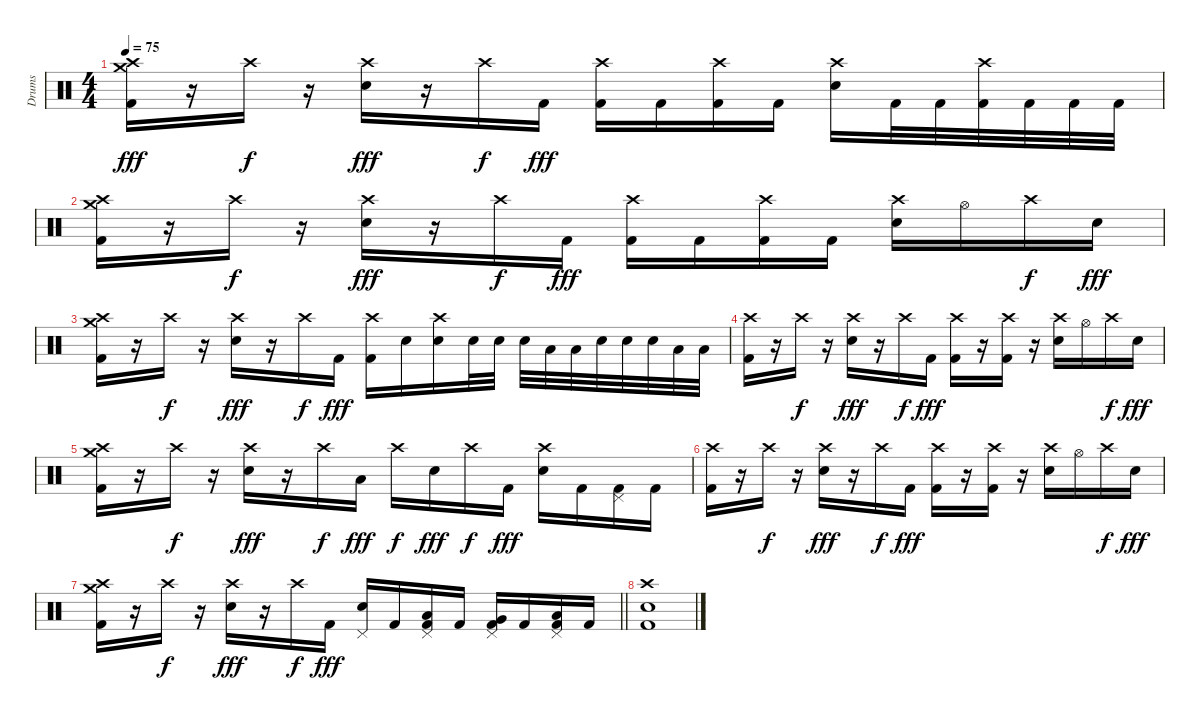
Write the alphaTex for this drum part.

\track ("Drums" "Drums") {instrument percussion}
\staff {score}
\articulation defaults
\ts (4 4)
\tempo 75
\clef neutral
\ks c
("Crash high (hit)" "Crash medium (hit)" "Kick (hit) 2").16{dy fff} r.16 "Crash high (hit)".16{dy f} r.16 ("Crash high (hit)" "Electric Snare (hit)").16{dy fff} r.16 "Crash high (hit)".16{dy f} "Kick (hit) 2".16{dy fff} ("Crash high (hit)" "Kick (hit) 2").16 "Kick (hit) 2".16 ("Crash high (hit)" "Kick (hit) 2").16 "Kick (hit) 2".16 ("Crash high (hit)" "Electric Snare (hit)").16 "Kick (hit) 2".32 "Kick (hit) 2".32 ("Crash high (hit)" "Kick (hit) 2").32 "Kick (hit) 2".32 "Kick (hit) 2".32 "Kick (hit) 2".32 |
("Crash high (hit)" "Crash medium (hit)" "Kick (hit) 2").16 r.16 "Crash high (hit)".16{dy f} r.16 ("Crash high (hit)" "Electric Snare (hit)").16{dy fff} r.16 "Crash high (hit)".16{dy f} "Kick (hit) 2".16{dy fff} ("Crash high (hit)" "Kick (hit) 2").16 "Kick (hit) 2".16 ("Crash high (hit)" "Kick (hit) 2").16 "Kick (hit) 2".16 ("Crash high (hit)" "Electric Snare (hit)").16 "Hi-Hat (open)".16 "Crash high (hit)".16{dy f} "Electric Snare (hit)".16{dy fff} |
("Crash high (hit)" "Crash medium (hit)" "Kick (hit) 2").16 r.16 "Crash high (hit)".16{dy f} r.16 ("Crash high (hit)" "Electric Snare (hit)").16{dy fff} r.16 "Crash high (hit)".16{dy f} "Kick (hit) 2".16{dy fff} ("Crash high (hit)" "Kick (hit) 2").16 "Electric Snare (hit)".16 ("Crash high (hit)" "Electric Snare (hit)").16 "Electric Snare (hit)".32 "Electric Snare (hit)".32 "Electric Snare (hit)".32 "Low Tom (hit)".32 "Low Floor Tom (hit)".32 "Electric Snare (hit)".32 "Electric Snare (hit)".32 "Electric Snare (hit)".32 "Low Tom (hit)".32 "Low Floor Tom (hit)".32 |
("Crash high (hit)" "Kick (hit) 2").16 r.16 "Crash high (hit)".16{dy f} r.16 ("Crash high (hit)" "Electric Snare (hit)").16{dy fff} r.16 "Crash high (hit)".16{dy f} "Kick (hit) 2".16{dy fff} ("Crash high (hit)" "Kick (hit) 2").16 r.16 ("Crash high (hit)" "Kick (hit) 2").16 r.16 ("Crash high (hit)" "Electric Snare (hit)").16 "Hi-Hat (open)".16 "Crash high (hit)".16{dy f} "Electric Snare (hit)".16{dy fff} |
("Crash high (hit)" "Crash medium (hit)" "Kick (hit) 2").16 r.16 "Crash high (hit)".16{dy f} r.16 ("Crash high (hit)" "Electric Snare (hit)").16{dy fff} r.16 "Crash high (hit)".16{dy f} "Low Tom (hit)".16{dy fff} "Crash high (hit)".16{dy f} "Electric Snare (hit)".16{dy fff} "Crash high (hit)".16{dy f} "Kick (hit) 2".16{dy fff} ("Crash high (hit)" "Electric Snare (hit)").16 "Kick (hit) 2".16 ("Pedal Hi-Hat (hit)" "Kick (hit) 2").16 "Kick (hit) 2".16 |
("Crash high (hit)" "Kick (hit) 2").16 r.16 "Crash high (hit)".16{dy f} r.16 ("Crash high (hit)" "Electric Snare (hit)").16{dy fff} r.16 "Crash high (hit)".16{dy f} "Kick (hit) 2".16{dy fff} ("Crash high (hit)" "Kick (hit) 2").16 r.16 ("Crash high (hit)" "Kick (hit) 2").16 r.16 ("Crash high (hit)" "Electric Snare (hit)").16 "Hi-Hat (open)".16 "Crash high (hit)".16{dy f} "Electric Snare (hit)".16{dy fff} |
\barLineRight lightlight
("Crash high (hit)" "Crash medium (hit)" "Kick (hit) 2").16 r.16 "Crash high (hit)".16{dy f} r.16 ("Crash high (hit)" "Electric Snare (hit)").16{dy fff} r.16 "Crash high (hit)".16{dy f} "Kick (hit) 2".16{dy fff} ("Pedal Hi-Hat (hit)" "Electric Snare (hit)").16 "Kick (hit) 2".16 ("Pedal Hi-Hat (hit)" "Low Tom (hit)" "Kick (hit) 2").16 "Kick (hit) 2".16 ("Pedal Hi-Hat (hit)" "Very Low Tom (hit)" "Kick (hit) 2").16 "Kick (hit) 2".16 ("Pedal Hi-Hat (hit)" "Low Floor Tom (hit)" "Kick (hit) 2").16 "Kick (hit) 2".16 |
\section ("" "")
("Crash high (hit)" "Electric Snare (hit)" "Kick (hit) 2").1
